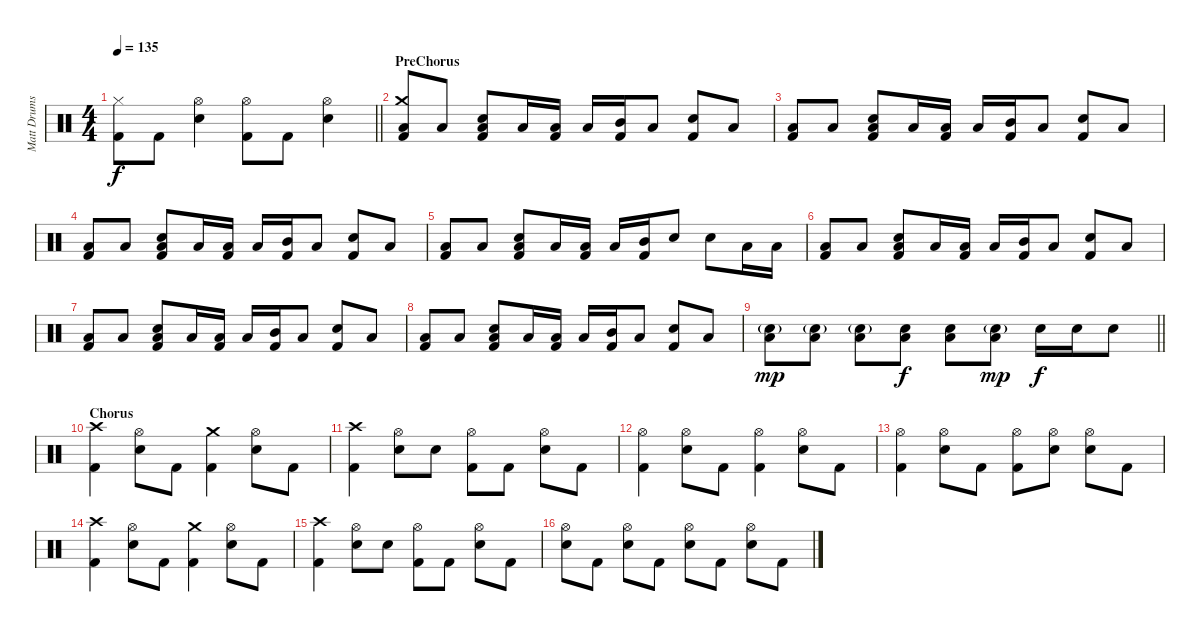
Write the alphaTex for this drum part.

\track ("Matt Drums" "Matt Drums") {instrument percussion}
\staff {score}
\articulation defaults
\ts (4 4)
\tempo 135
\clef neutral
\barLineRight lightlight
\ks c
("Hi-Hat (closed)" "Kick (hit) 2").8{dy f} "Kick (hit) 2".8 ("Hi-Hat (open)" "Snare (hit) 2").4 ("Hi-Hat (open)" "Kick (hit) 2").8 "Kick (hit) 2".8 ("Hi-Hat (open)" "Snare (hit) 2").4 |
\section ("" "PreChorus")
("Crash medium (hit)" "Low Floor Tom (hit)" "Kick (hit) 2").8 "Low Floor Tom (hit)".8 ("Snare (hit) 2" "Low Floor Tom (hit)" "Kick (hit) 2").8 "Low Floor Tom (hit)".16 ("Low Tom (hit)" "Kick (hit) 2").16 "Low Floor Tom (hit)".16 ("Mid Tom (hit)" "Kick (hit) 2").16 "Low Floor Tom (hit)".8 ("Snare (hit) 2" "Kick (hit) 2").8 "Low Floor Tom (hit)".8 |
("Low Floor Tom (hit)" "Kick (hit) 2").8 "Low Floor Tom (hit)".8 ("Snare (hit) 2" "Low Floor Tom (hit)" "Kick (hit) 2").8 "Low Floor Tom (hit)".16 ("Low Tom (hit)" "Kick (hit) 2").16 "Low Floor Tom (hit)".16 ("Mid Tom (hit)" "Kick (hit) 2").16 "Low Floor Tom (hit)".8 ("Snare (hit) 2" "Kick (hit) 2").8 "Low Floor Tom (hit)".8 |
("Low Floor Tom (hit)" "Kick (hit) 2").8 "Low Floor Tom (hit)".8 ("Snare (hit) 2" "Low Floor Tom (hit)" "Kick (hit) 2").8 "Low Floor Tom (hit)".16 ("Low Tom (hit)" "Kick (hit) 2").16 "Low Floor Tom (hit)".16 ("Mid Tom (hit)" "Kick (hit) 2").16 "Low Floor Tom (hit)".8 ("Snare (hit) 2" "Kick (hit) 2").8 "Low Floor Tom (hit)".8 |
("Low Floor Tom (hit)" "Kick (hit) 2").8 "Low Floor Tom (hit)".8 ("Snare (hit) 2" "Low Floor Tom (hit)" "Kick (hit) 2").8 "Low Floor Tom (hit)".16 ("Low Tom (hit)" "Kick (hit) 2").16 "Low Floor Tom (hit)".16 ("Mid Tom (hit)" "Kick (hit) 2").16 "Snare (hit) 2".8 "Snare (hit) 2".8 "Low Tom (hit)".16 "Low Floor Tom (hit)".16 |
("Low Floor Tom (hit)" "Kick (hit) 2").8 "Low Floor Tom (hit)".8 ("Snare (hit) 2" "Low Floor Tom (hit)" "Kick (hit) 2").8 "Low Floor Tom (hit)".16 ("Low Tom (hit)" "Kick (hit) 2").16 "Low Floor Tom (hit)".16 ("Mid Tom (hit)" "Kick (hit) 2").16 "Low Floor Tom (hit)".8 ("Snare (hit) 2" "Kick (hit) 2").8 "Low Floor Tom (hit)".8 |
("Low Floor Tom (hit)" "Kick (hit) 2").8 "Low Floor Tom (hit)".8 ("Snare (hit) 2" "Low Floor Tom (hit)" "Kick (hit) 2").8 "Low Floor Tom (hit)".16 ("Low Tom (hit)" "Kick (hit) 2").16 "Low Floor Tom (hit)".16 ("Mid Tom (hit)" "Kick (hit) 2").16 "Low Floor Tom (hit)".8 ("Snare (hit) 2" "Kick (hit) 2").8 "Low Floor Tom (hit)".8 |
("Low Floor Tom (hit)" "Kick (hit) 2").8 "Low Floor Tom (hit)".8 ("Snare (hit) 2" "Low Floor Tom (hit)" "Kick (hit) 2").8 "Low Floor Tom (hit)".16 ("Low Tom (hit)" "Kick (hit) 2").16 "Low Floor Tom (hit)".16 ("Mid Tom (hit)" "Kick (hit) 2").16 "Low Floor Tom (hit)".8 ("Snare (hit) 2" "Kick (hit) 2").8 "Low Floor Tom (hit)".8 |
\barLineRight lightlight
("Snare (hit) 2"{g} "Low Floor Tom (hit)").8{dy mp} ("Snare (hit) 2"{g} "Low Floor Tom (hit)").8 ("Snare (hit) 2"{g} "Low Floor Tom (hit)").8 ("Snare (hit) 2" "Low Floor Tom (hit)").8{dy f} ("Snare (hit) 2" "Low Floor Tom (hit)").8 ("Snare (hit) 2"{g} "Low Floor Tom (hit)").8{dy mp} "Snare (hit) 2".16{dy f} "Snare (hit) 2".16 "Snare (hit) 2".8 |
\section ("" "Chorus")
("Crash high (hit)" "Kick (hit) 2").4 ("Hi-Hat (open)" "Snare (hit) 2").8 "Kick (hit) 2".8 ("Crash medium (hit)" "Kick (hit) 2").4 ("Hi-Hat (open)" "Snare (hit) 2").8 "Kick (hit) 2".8 |
("Crash high (hit)" "Kick (hit) 2").4 ("Hi-Hat (open)" "Snare (hit) 2").8 "Snare (hit) 2".8 ("Hi-Hat (open)" "Kick (hit) 2").8 "Kick (hit) 2".8 ("Hi-Hat (open)" "Snare (hit) 2").8 "Kick (hit) 2".8 |
("Hi-Hat (open)" "Kick (hit) 2").4 ("Hi-Hat (open)" "Snare (hit) 2").8 "Kick (hit) 2".8 ("Hi-Hat (open)" "Kick (hit) 2").4 ("Hi-Hat (open)" "Snare (hit) 2").8 "Kick (hit) 2".8 |
("Hi-Hat (open)" "Kick (hit) 2").4 ("Hi-Hat (open)" "Snare (hit) 2").8 "Kick (hit) 2".8 ("Hi-Hat (open)" "Kick (hit) 2").8 ("Hi-Hat (open)" "Snare (hit) 2").8 ("Hi-Hat (open)" "Snare (hit) 2").8 "Kick (hit) 2".8 |
("Crash high (hit)" "Kick (hit) 2").4 ("Hi-Hat (open)" "Snare (hit) 2").8 "Kick (hit) 2".8 ("Crash medium (hit)" "Kick (hit) 2").4 ("Hi-Hat (open)" "Snare (hit) 2").8 "Kick (hit) 2".8 |
("Crash high (hit)" "Kick (hit) 2").4 ("Hi-Hat (open)" "Snare (hit) 2").8 "Snare (hit) 2".8 ("Hi-Hat (open)" "Kick (hit) 2").8 "Kick (hit) 2".8 ("Hi-Hat (open)" "Snare (hit) 2").8 "Kick (hit) 2".8 |
("Hi-Hat (open)" "Snare (hit) 2").8 "Kick (hit) 2".8 ("Hi-Hat (open)" "Snare (hit) 2").8 "Kick (hit) 2".8 ("Hi-Hat (open)" "Snare (hit) 2").8 "Kick (hit) 2".8 ("Hi-Hat (open)" "Snare (hit) 2").8 "Kick (hit) 2".8
